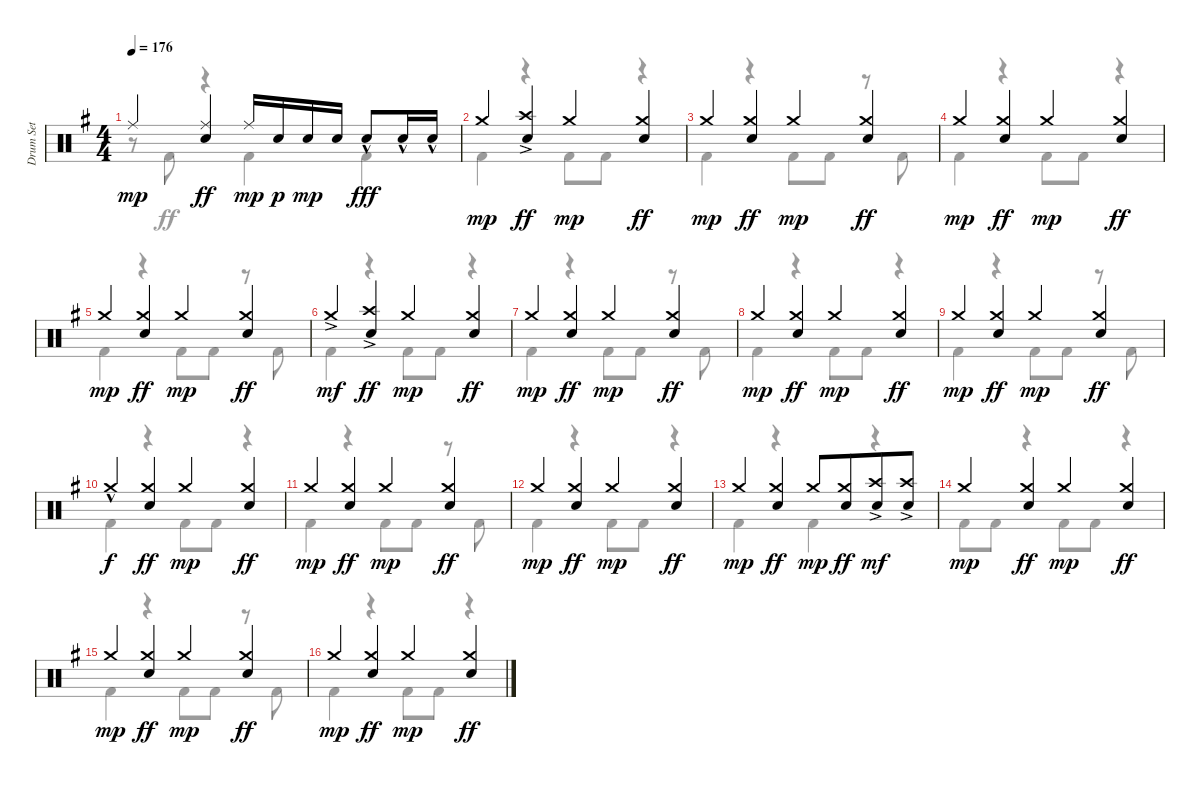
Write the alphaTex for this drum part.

\track ("Drum Set" "Drum Set") {instrument percussion}
\staff {score}
\articulation defaults
\voice
\ts (4 4)
\tempo 176
\clef neutral
\ks eminor "Ride (middle)".4{dy mp}
("Ride (middle)" "Electric Snare (hit)").4{dy ff} "Ride (middle)".16{dy mp} "Snare (hit) 2".16{dy p} "Electric Snare (hit)".16{dy mp} "Electric Snare (hit)".16 "Electric Snare (hit)"{hac}.8{dy fff} "Electric Snare (hit)"{hac}.16 "Electric Snare (hit)"{hac}.16 |
"Crash medium (hit)".4{dy mp} ("Crash high (hit)"{ac} "Electric Snare (hit)").4{dy ff} "Crash medium (hit)".4{dy mp} ("Crash medium (hit)" "Electric Snare (hit)").4{dy ff} |
"Crash medium (hit)".4{dy mp} ("Crash medium (hit)" "Electric Snare (hit)").4{dy ff} "Crash medium (hit)".4{dy mp} ("Crash medium (hit)" "Electric Snare (hit)").4{dy ff} |
"Crash medium (hit)".4{dy mp} ("Crash medium (hit)" "Electric Snare (hit)").4{dy ff} "Crash medium (hit)".4{dy mp} ("Crash medium (hit)" "Electric Snare (hit)").4{dy ff} |
"Crash medium (hit)".4{dy mp} ("Crash medium (hit)" "Electric Snare (hit)").4{dy ff} "Crash medium (hit)".4{dy mp} ("Crash medium (hit)" "Electric Snare (hit)").4{dy ff} |
"Crash medium (hit)"{ac}.4{dy mf} ("Crash high (hit)"{ac} "Electric Snare (hit)").4{dy ff} "Crash medium (hit)".4{dy mp} ("Crash medium (hit)" "Electric Snare (hit)").4{dy ff} |
"Crash medium (hit)".4{dy mp} ("Crash medium (hit)" "Electric Snare (hit)").4{dy ff} "Crash medium (hit)".4{dy mp} ("Crash medium (hit)" "Electric Snare (hit)").4{dy ff} |
"Crash medium (hit)".4{dy mp} ("Crash medium (hit)" "Electric Snare (hit)").4{dy ff} "Crash medium (hit)".4{dy mp} ("Crash medium (hit)" "Electric Snare (hit)").4{dy ff} |
"Crash medium (hit)".4{dy mp} ("Crash medium (hit)" "Electric Snare (hit)").4{dy ff} "Crash medium (hit)".4{dy mp} ("Crash medium (hit)" "Electric Snare (hit)").4{dy ff} |
"Crash medium (hit)"{hac}.4{dy f} ("Crash medium (hit)" "Electric Snare (hit)").4{dy ff} "Crash medium (hit)".4{dy mp} ("Crash medium (hit)" "Electric Snare (hit)").4{dy ff} |
"Crash medium (hit)".4{dy mp} ("Crash medium (hit)" "Electric Snare (hit)").4{dy ff} "Crash medium (hit)".4{dy mp} ("Crash medium (hit)" "Electric Snare (hit)").4{dy ff} |
"Crash medium (hit)".4{dy mp} ("Crash medium (hit)" "Electric Snare (hit)").4{dy ff} "Crash medium (hit)".4{dy mp} ("Crash medium (hit)" "Electric Snare (hit)").4{dy ff} |
"Crash medium (hit)".4{dy mp} ("Crash medium (hit)" "Electric Snare (hit)").4{dy ff} "Crash medium (hit)".8{dy mp} ("Crash medium (hit)" "Electric Snare (hit)").8{dy ff beam merge} ("Electric Snare (hit)" "Crash high (hit)"{ac}).8{dy mf} ("Electric Snare (hit)" "Crash high (hit)"{ac}).8 |
"Crash medium (hit)".4{dy mp} ("Crash medium (hit)" "Electric Snare (hit)").4{dy ff} "Crash medium (hit)".4{dy mp} ("Crash medium (hit)" "Electric Snare (hit)").4{dy ff} |
"Crash medium (hit)".4{dy mp} ("Crash medium (hit)" "Electric Snare (hit)").4{dy ff} "Crash medium (hit)".4{dy mp} ("Crash medium (hit)" "Electric Snare (hit)").4{dy ff} |
"Crash medium (hit)".4{dy mp} ("Crash medium (hit)" "Electric Snare (hit)").4{dy ff} "Crash medium (hit)".4{dy mp} ("Crash medium (hit)" "Electric Snare (hit)").4{dy ff}
\voice
\clef neutral
\ottava regular
\simile none
\ks eminor
r.8{dy ff} "Kick (hit) 2".8 r.4 "Kick (hit) 2".4 "Kick (hit) 2".4 |
"Kick (hit) 2".4 r.4 "Kick (hit) 2".8 "Kick (hit) 2".8 r.4 |
"Kick (hit) 2".4 r.4 "Kick (hit) 2".8 "Kick (hit) 2".8 r.8 "Kick (hit) 2".8 |
"Kick (hit) 2".4 r.4 "Kick (hit) 2".8 "Kick (hit) 2".8 r.4 |
"Kick (hit) 2".4 r.4 "Kick (hit) 2".8 "Kick (hit) 2".8 r.8 "Kick (hit) 2".8 |
"Kick (hit) 2".4 r.4 "Kick (hit) 2".8 "Kick (hit) 2".8 r.4 |
"Kick (hit) 2".4 r.4 "Kick (hit) 2".8 "Kick (hit) 2".8 r.8 "Kick (hit) 2".8 |
"Kick (hit) 2".4 r.4 "Kick (hit) 2".8 "Kick (hit) 2".8 r.4 |
"Kick (hit) 2".4 r.4 "Kick (hit) 2".8 "Kick (hit) 2".8 r.8 "Kick (hit) 2".8 |
"Kick (hit) 2".4 r.4 "Kick (hit) 2".8 "Kick (hit) 2".8 r.4 |
"Kick (hit) 2".4 r.4 "Kick (hit) 2".8 "Kick (hit) 2".8 r.8 "Kick (hit) 2".8 |
"Kick (hit) 2".4 r.4 "Kick (hit) 2".8 "Kick (hit) 2".8 r.4 |
"Kick (hit) 2".4 r.4 "Kick (hit) 2".4 r.4 |
"Kick (hit) 2".8 "Kick (hit) 2".8 r.4 "Kick (hit) 2".8 "Kick (hit) 2".8 r.4 |
"Kick (hit) 2".4 r.4 "Kick (hit) 2".8 "Kick (hit) 2".8 r.8 "Kick (hit) 2".8 |
"Kick (hit) 2".4 r.4 "Kick (hit) 2".8 "Kick (hit) 2".8 r.4
